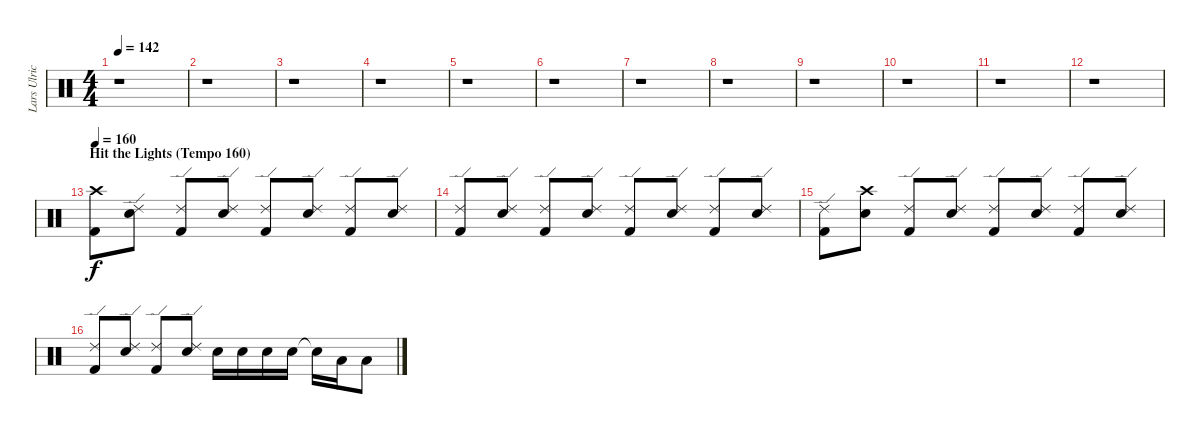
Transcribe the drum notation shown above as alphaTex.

\track ("Lars Ulrich (Drums)" "Lars Ulric") {instrument percussion}
\staff {score}
\articulation defaults
\ts (4 4)
\tempo 142
\clef neutral
\ks c
r.1{dy f} |
r.1 |
r.1 |
r.1 |
r.1 |
r.1 |
r.1 |
r.1 |
r.1 |
r.1 |
r.1 |
r.1 |
\section ("" "Hit the Lights (Tempo 160)")
\tempo 160
("Crash high (hit)" "Kick (hit) 2").8{balance 8} ("Ride (edge) 2" "Electric Snare (hit)").8 ("Ride (edge) 2" "Kick (hit) 2").8 ("Ride (edge) 2" "Electric Snare (hit)").8 ("Ride (edge) 2" "Kick (hit) 2").8 ("Ride (edge) 2" "Electric Snare (hit)").8 ("Ride (edge) 2" "Kick (hit) 2").8 ("Ride (edge) 2" "Electric Snare (hit)").8 |
("Ride (edge) 2" "Kick (hit) 2").8 ("Ride (edge) 2" "Electric Snare (hit)").8 ("Ride (edge) 2" "Kick (hit) 2").8 ("Ride (edge) 2" "Electric Snare (hit)").8 ("Ride (edge) 2" "Kick (hit) 2").8 ("Ride (edge) 2" "Electric Snare (hit)").8 ("Ride (edge) 2" "Kick (hit) 2").8 ("Ride (edge) 2" "Electric Snare (hit)").8 |
("Ride (edge) 2" "Kick (hit) 2").8 ("Crash high (hit)" "Electric Snare (hit)").8 ("Ride (edge) 2" "Kick (hit) 2").8 ("Ride (edge) 2" "Electric Snare (hit)").8 ("Ride (edge) 2" "Kick (hit) 2").8 ("Ride (edge) 2" "Electric Snare (hit)").8 ("Ride (edge) 2" "Kick (hit) 2").8 ("Ride (edge) 2" "Electric Snare (hit)").8 |
("Ride (edge) 2" "Kick (hit) 2").8 ("Ride (edge) 2" "Electric Snare (hit)").8 ("Ride (edge) 2" "Kick (hit) 2").8 ("Ride (edge) 2" "Electric Snare (hit)").8 "Electric Snare (hit)".16 "Electric Snare (hit)".16 "Electric Snare (hit)".16 "Electric Snare (hit)".16 "Snare (hit)"{t}.16 "Low Tom (hit)".16 "Low Tom (hit)".8
